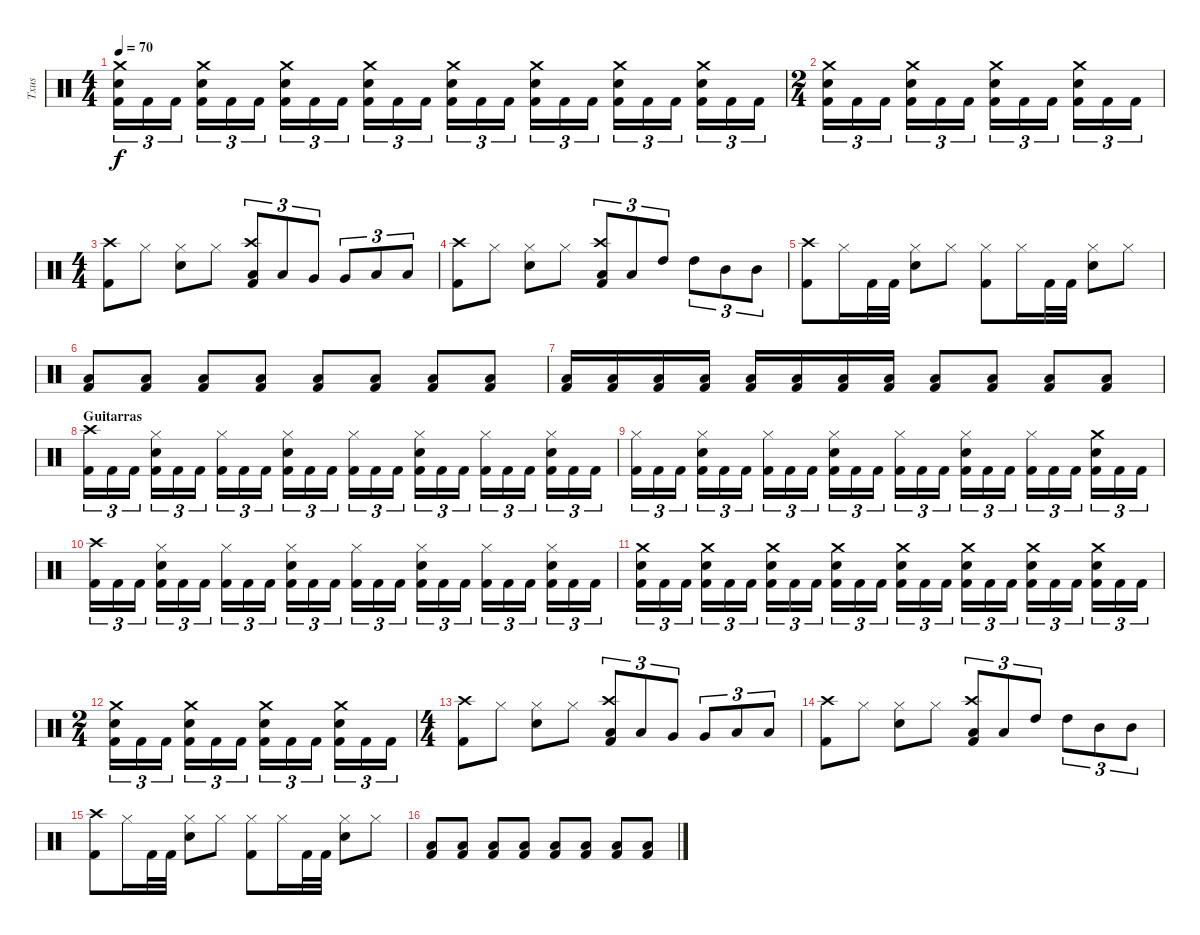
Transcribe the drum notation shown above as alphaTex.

\track ("Txus" "Txus") {instrument percussion}
\staff {score}
\articulation defaults
\ts (4 4)
\tempo 70
\clef neutral
\ks c
("Kick (hit) 2" "Electric Snare (hit)" "Crash medium (hit)").16{tu (3 2) dy f} "Kick (hit) 2".16{tu (3 2)} "Kick (hit) 2".16{tu (3 2)} ("Kick (hit) 2" "Electric Snare (hit)" "Crash medium (hit)").16{tu (3 2)} "Kick (hit) 2".16{tu (3 2)} "Kick (hit) 2".16{tu (3 2)} ("Kick (hit) 2" "Electric Snare (hit)" "Crash medium (hit)").16{tu (3 2)} "Kick (hit) 2".16{tu (3 2)} "Kick (hit) 2".16{tu (3 2)} ("Kick (hit) 2" "Electric Snare (hit)" "Crash medium (hit)").16{tu (3 2)} "Kick (hit) 2".16{tu (3 2)} "Kick (hit) 2".16{tu (3 2)} ("Kick (hit) 2" "Electric Snare (hit)" "Crash medium (hit)").16{tu (3 2)} "Kick (hit) 2".16{tu (3 2)} "Kick (hit) 2".16{tu (3 2)} ("Kick (hit) 2" "Electric Snare (hit)" "Crash medium (hit)").16{tu (3 2)} "Kick (hit) 2".16{tu (3 2)} "Kick (hit) 2".16{tu (3 2)} ("Kick (hit) 2" "Electric Snare (hit)" "Crash medium (hit)").16{tu (3 2)} "Kick (hit) 2".16{tu (3 2)} "Kick (hit) 2".16{tu (3 2)} ("Kick (hit) 2" "Electric Snare (hit)" "Crash medium (hit)").16{tu (3 2)} "Kick (hit) 2".16{tu (3 2)} "Kick (hit) 2".16{tu (3 2)} |
\ts (2 4)
("Kick (hit) 2" "Electric Snare (hit)" "Crash medium (hit)").16{tu (3 2)} "Kick (hit) 2".16{tu (3 2)} "Kick (hit) 2".16{tu (3 2)} ("Kick (hit) 2" "Electric Snare (hit)" "Crash medium (hit)").16{tu (3 2)} "Kick (hit) 2".16{tu (3 2)} "Kick (hit) 2".16{tu (3 2)} ("Kick (hit) 2" "Electric Snare (hit)" "Crash medium (hit)").16{tu (3 2)} "Kick (hit) 2".16{tu (3 2)} "Kick (hit) 2".16{tu (3 2)} ("Kick (hit) 2" "Electric Snare (hit)" "Crash medium (hit)").16{tu (3 2)} "Kick (hit) 2".16{tu (3 2)} "Kick (hit) 2".16{tu (3 2)} |
\ts (4 4)
("Kick (hit) 2" "Crash high (hit)").8 "Hi-Hat (closed)".8 ("Electric Snare (hit)" "Hi-Hat (closed)").8 "Hi-Hat (closed)".8 ("Kick (hit) 2" "Low Tom (hit)" "Crash high (hit)").8{tu (3 2)} "Low Tom (hit)".8{tu (3 2)} "Very Low Tom (hit)".8{tu (3 2)} "Very Low Tom (hit)".8{tu (3 2)} "Low Floor Tom (hit)".8{tu (3 2)} "Low Floor Tom (hit)".8{tu (3 2)} |
("Kick (hit) 2" "Crash high (hit)").8 "Hi-Hat (closed)".8 ("Electric Snare (hit)" "Hi-Hat (closed)").8 "Hi-Hat (closed)".8 ("Kick (hit) 2" "Low Tom (hit)" "Crash high (hit)").8{tu (3 2)} "Low Tom (hit)".8{tu (3 2)} "High Tom (hit)".8{tu (3 2)} "High Tom (hit)".8{tu (3 2)} "Mid Tom (hit)".8{tu (3 2)} "Mid Tom (hit)".8{tu (3 2)} |
("Kick (hit) 2" "Crash high (hit)").8 "Hi-Hat (closed)".16 "Kick (hit) 2".32 "Kick (hit) 2".32 ("Electric Snare (hit)" "Hi-Hat (closed)").8 "Hi-Hat (closed)".8 ("Kick (hit) 2" "Hi-Hat (closed)").8 "Hi-Hat (closed)".16 "Kick (hit) 2".32 "Kick (hit) 2".32 ("Electric Snare (hit)" "Hi-Hat (closed)").8 "Hi-Hat (closed)".8 |
("Kick (hit) 2" "Low Tom (hit)").8 ("Kick (hit) 2" "Low Tom (hit)").8 ("Kick (hit) 2" "Low Tom (hit)").8 ("Kick (hit) 2" "Low Tom (hit)").8 ("Kick (hit) 2" "Low Tom (hit)").8 ("Kick (hit) 2" "Low Tom (hit)").8 ("Kick (hit) 2" "Low Tom (hit)").8 ("Kick (hit) 2" "Low Tom (hit)").8 |
("Kick (hit) 2" "Low Tom (hit)").16 ("Kick (hit) 2" "Low Tom (hit)").16 ("Kick (hit) 2" "Low Tom (hit)").16 ("Kick (hit) 2" "Low Tom (hit)").16 ("Kick (hit) 2" "Low Tom (hit)").16 ("Kick (hit) 2" "Low Tom (hit)").16 ("Kick (hit) 2" "Low Tom (hit)").16 ("Kick (hit) 2" "Low Tom (hit)").16 ("Kick (hit) 2" "Low Tom (hit)").8 ("Kick (hit) 2" "Low Tom (hit)").8 ("Kick (hit) 2" "Low Tom (hit)").8 ("Kick (hit) 2" "Low Tom (hit)").8 |
\section ("" "Guitarras")
("Kick (hit) 2" "Crash high (hit)").16{tu (3 2)} "Kick (hit) 2".16{tu (3 2)} "Kick (hit) 2".16{tu (3 2)} ("Kick (hit) 2" "Electric Snare (hit)" "Hi-Hat (closed)").16{tu (3 2)} "Kick (hit) 2".16{tu (3 2)} "Kick (hit) 2".16{tu (3 2)} ("Kick (hit) 2" "Hi-Hat (closed)").16{tu (3 2)} "Kick (hit) 2".16{tu (3 2)} "Kick (hit) 2".16{tu (3 2)} ("Kick (hit) 2" "Electric Snare (hit)" "Hi-Hat (closed)").16{tu (3 2)} "Kick (hit) 2".16{tu (3 2)} "Kick (hit) 2".16{tu (3 2)} ("Kick (hit) 2" "Hi-Hat (closed)").16{tu (3 2)} "Kick (hit) 2".16{tu (3 2)} "Kick (hit) 2".16{tu (3 2)} ("Kick (hit) 2" "Electric Snare (hit)" "Hi-Hat (closed)").16{tu (3 2)} "Kick (hit) 2".16{tu (3 2)} "Kick (hit) 2".16{tu (3 2)} ("Kick (hit) 2" "Hi-Hat (closed)").16{tu (3 2)} "Kick (hit) 2".16{tu (3 2)} "Kick (hit) 2".16{tu (3 2)} ("Kick (hit) 2" "Electric Snare (hit)" "Hi-Hat (closed)").16{tu (3 2)} "Kick (hit) 2".16{tu (3 2)} "Kick (hit) 2".16{tu (3 2)} |
("Kick (hit) 2" "Hi-Hat (closed)").16{tu (3 2)} "Kick (hit) 2".16{tu (3 2)} "Kick (hit) 2".16{tu (3 2)} ("Kick (hit) 2" "Electric Snare (hit)" "Hi-Hat (closed)").16{tu (3 2)} "Kick (hit) 2".16{tu (3 2)} "Kick (hit) 2".16{tu (3 2)} ("Kick (hit) 2" "Hi-Hat (closed)").16{tu (3 2)} "Kick (hit) 2".16{tu (3 2)} "Kick (hit) 2".16{tu (3 2)} ("Kick (hit) 2" "Electric Snare (hit)" "Hi-Hat (closed)").16{tu (3 2)} "Kick (hit) 2".16{tu (3 2)} "Kick (hit) 2".16{tu (3 2)} ("Kick (hit) 2" "Hi-Hat (closed)").16{tu (3 2)} "Kick (hit) 2".16{tu (3 2)} "Kick (hit) 2".16{tu (3 2)} ("Kick (hit) 2" "Electric Snare (hit)" "Hi-Hat (closed)").16{tu (3 2)} "Kick (hit) 2".16{tu (3 2)} "Kick (hit) 2".16{tu (3 2)} ("Kick (hit) 2" "Hi-Hat (closed)").16{tu (3 2)} "Kick (hit) 2".16{tu (3 2)} "Kick (hit) 2".16{tu (3 2)} ("Kick (hit) 2" "Electric Snare (hit)" "Crash medium (hit)").16{tu (3 2)} "Kick (hit) 2".16{tu (3 2)} "Kick (hit) 2".16{tu (3 2)} |
("Kick (hit) 2" "Crash high (hit)").16{tu (3 2)} "Kick (hit) 2".16{tu (3 2)} "Kick (hit) 2".16{tu (3 2)} ("Kick (hit) 2" "Electric Snare (hit)" "Hi-Hat (closed)").16{tu (3 2)} "Kick (hit) 2".16{tu (3 2)} "Kick (hit) 2".16{tu (3 2)} ("Kick (hit) 2" "Hi-Hat (closed)").16{tu (3 2)} "Kick (hit) 2".16{tu (3 2)} "Kick (hit) 2".16{tu (3 2)} ("Kick (hit) 2" "Electric Snare (hit)" "Hi-Hat (closed)").16{tu (3 2)} "Kick (hit) 2".16{tu (3 2)} "Kick (hit) 2".16{tu (3 2)} ("Kick (hit) 2" "Hi-Hat (closed)").16{tu (3 2)} "Kick (hit) 2".16{tu (3 2)} "Kick (hit) 2".16{tu (3 2)} ("Kick (hit) 2" "Electric Snare (hit)" "Hi-Hat (closed)").16{tu (3 2)} "Kick (hit) 2".16{tu (3 2)} "Kick (hit) 2".16{tu (3 2)} ("Kick (hit) 2" "Hi-Hat (closed)").16{tu (3 2)} "Kick (hit) 2".16{tu (3 2)} "Kick (hit) 2".16{tu (3 2)} ("Kick (hit) 2" "Electric Snare (hit)" "Hi-Hat (closed)").16{tu (3 2)} "Kick (hit) 2".16{tu (3 2)} "Kick (hit) 2".16{tu (3 2)} |
("Kick (hit) 2" "Electric Snare (hit)" "Crash medium (hit)").16{tu (3 2)} "Kick (hit) 2".16{tu (3 2)} "Kick (hit) 2".16{tu (3 2)} ("Kick (hit) 2" "Electric Snare (hit)" "Crash medium (hit)").16{tu (3 2)} "Kick (hit) 2".16{tu (3 2)} "Kick (hit) 2".16{tu (3 2)} ("Kick (hit) 2" "Electric Snare (hit)" "Crash medium (hit)").16{tu (3 2)} "Kick (hit) 2".16{tu (3 2)} "Kick (hit) 2".16{tu (3 2)} ("Kick (hit) 2" "Electric Snare (hit)" "Crash medium (hit)").16{tu (3 2)} "Kick (hit) 2".16{tu (3 2)} "Kick (hit) 2".16{tu (3 2)} ("Kick (hit) 2" "Electric Snare (hit)" "Crash medium (hit)").16{tu (3 2)} "Kick (hit) 2".16{tu (3 2)} "Kick (hit) 2".16{tu (3 2)} ("Kick (hit) 2" "Electric Snare (hit)" "Crash medium (hit)").16{tu (3 2)} "Kick (hit) 2".16{tu (3 2)} "Kick (hit) 2".16{tu (3 2)} ("Kick (hit) 2" "Electric Snare (hit)" "Crash medium (hit)").16{tu (3 2)} "Kick (hit) 2".16{tu (3 2)} "Kick (hit) 2".16{tu (3 2)} ("Kick (hit) 2" "Electric Snare (hit)" "Crash medium (hit)").16{tu (3 2)} "Kick (hit) 2".16{tu (3 2)} "Kick (hit) 2".16{tu (3 2)} |
\ts (2 4)
("Kick (hit) 2" "Electric Snare (hit)" "Crash medium (hit)").16{tu (3 2)} "Kick (hit) 2".16{tu (3 2)} "Kick (hit) 2".16{tu (3 2)} ("Kick (hit) 2" "Electric Snare (hit)" "Crash medium (hit)").16{tu (3 2)} "Kick (hit) 2".16{tu (3 2)} "Kick (hit) 2".16{tu (3 2)} ("Kick (hit) 2" "Electric Snare (hit)" "Crash medium (hit)").16{tu (3 2)} "Kick (hit) 2".16{tu (3 2)} "Kick (hit) 2".16{tu (3 2)} ("Kick (hit) 2" "Electric Snare (hit)" "Crash medium (hit)").16{tu (3 2)} "Kick (hit) 2".16{tu (3 2)} "Kick (hit) 2".16{tu (3 2)} |
\ts (4 4)
("Kick (hit) 2" "Crash high (hit)").8 "Hi-Hat (closed)".8 ("Electric Snare (hit)" "Hi-Hat (closed)").8 "Hi-Hat (closed)".8 ("Kick (hit) 2" "Low Tom (hit)" "Crash high (hit)").8{tu (3 2)} "Low Tom (hit)".8{tu (3 2)} "Very Low Tom (hit)".8{tu (3 2)} "Very Low Tom (hit)".8{tu (3 2)} "Low Floor Tom (hit)".8{tu (3 2)} "Low Floor Tom (hit)".8{tu (3 2)} |
("Kick (hit) 2" "Crash high (hit)").8 "Hi-Hat (closed)".8 ("Electric Snare (hit)" "Hi-Hat (closed)").8 "Hi-Hat (closed)".8 ("Kick (hit) 2" "Low Tom (hit)" "Crash high (hit)").8{tu (3 2)} "Low Tom (hit)".8{tu (3 2)} "High Tom (hit)".8{tu (3 2)} "High Tom (hit)".8{tu (3 2)} "Mid Tom (hit)".8{tu (3 2)} "Mid Tom (hit)".8{tu (3 2)} |
("Kick (hit) 2" "Crash high (hit)").8 "Hi-Hat (closed)".16 "Kick (hit) 2".32 "Kick (hit) 2".32 ("Electric Snare (hit)" "Hi-Hat (closed)").8 "Hi-Hat (closed)".8 ("Kick (hit) 2" "Hi-Hat (closed)").8 "Hi-Hat (closed)".16 "Kick (hit) 2".32 "Kick (hit) 2".32 ("Electric Snare (hit)" "Hi-Hat (closed)").8 "Hi-Hat (closed)".8 |
("Kick (hit) 2" "Low Tom (hit)").8 ("Kick (hit) 2" "Low Tom (hit)").8 ("Kick (hit) 2" "Low Tom (hit)").8 ("Kick (hit) 2" "Low Tom (hit)").8 ("Kick (hit) 2" "Low Tom (hit)").8 ("Kick (hit) 2" "Low Tom (hit)").8 ("Kick (hit) 2" "Low Tom (hit)").8 ("Kick (hit) 2" "Low Tom (hit)").8
